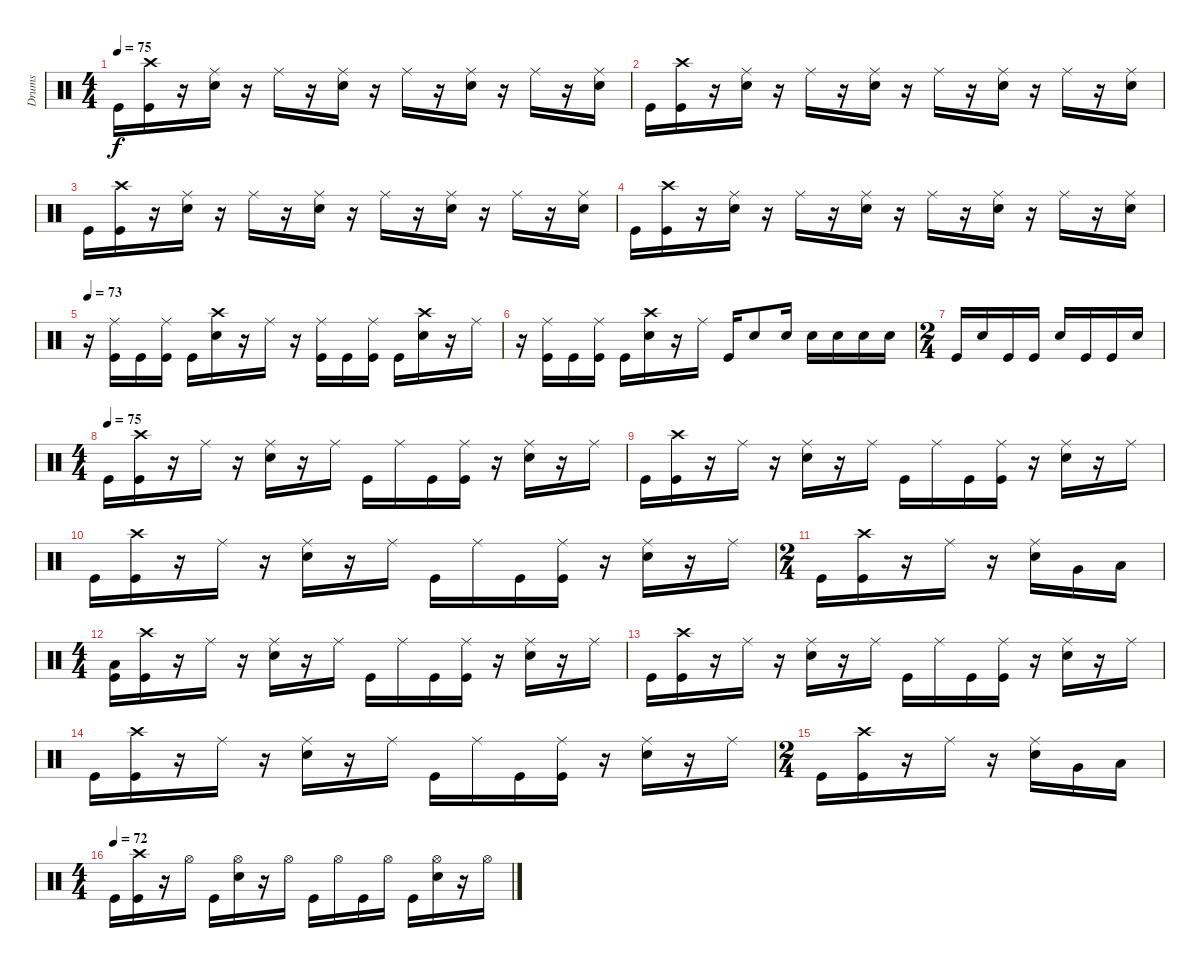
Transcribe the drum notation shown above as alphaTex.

\track ("Drums" "Drums") {instrument percussion}
\staff {score}
\articulation defaults
\ts (4 4)
\tempo 75
\clef neutral
\ks c "Kick (hit)".16{dy f}
("Crash high (hit)" "Kick (hit)").16 r.16 ("Ride (middle)" "Snare (hit) 2").16 r.16 "Ride (middle)".16 r.16 ("Ride (middle)" "Snare (hit) 2").16 r.16 "Ride (middle)".16 r.16 ("Ride (middle)" "Snare (hit) 2").16 r.16 "Ride (middle)".16 r.16 ("Ride (middle)" "Snare (hit) 2").16 |
"Kick (hit)".16 ("Crash high (hit)" "Kick (hit)").16 r.16 ("Ride (middle)" "Snare (hit) 2").16 r.16 "Ride (middle)".16 r.16 ("Ride (middle)" "Snare (hit) 2").16 r.16 "Ride (middle)".16 r.16 ("Ride (middle)" "Snare (hit) 2").16 r.16 "Ride (middle)".16 r.16 ("Ride (middle)" "Snare (hit) 2").16 |
"Kick (hit)".16 ("Crash high (hit)" "Kick (hit)").16 r.16 ("Ride (middle)" "Snare (hit) 2").16 r.16 "Ride (middle)".16 r.16 ("Ride (middle)" "Snare (hit) 2").16 r.16 "Ride (middle)".16 r.16 ("Ride (middle)" "Snare (hit) 2").16 r.16 "Ride (middle)".16 r.16 ("Ride (middle)" "Snare (hit) 2").16 |
"Kick (hit)".16 ("Crash high (hit)" "Kick (hit)").16 r.16 ("Ride (middle)" "Snare (hit) 2").16 r.16 "Ride (middle)".16 r.16 ("Ride (middle)" "Snare (hit) 2").16 r.16 "Ride (middle)".16 r.16 ("Ride (middle)" "Snare (hit) 2").16 r.16 "Ride (middle)".16 r.16 ("Ride (middle)" "Snare (hit) 2").16 |
\tempo 73
r.16 ("Ride (middle)" "Kick (hit)").16 "Kick (hit)".16 ("Ride (middle)" "Kick (hit)").16 "Kick (hit)".16 ("Crash high (hit)" "Snare (hit) 2").16 r.16 "Ride (middle)".16 r.16 ("Ride (middle)" "Kick (hit)").16 "Kick (hit)".16 ("Ride (middle)" "Kick (hit)").16 "Kick (hit)".16 ("Crash high (hit)" "Snare (hit) 2").16 r.16 "Ride (middle)".16 |
r.16 ("Ride (middle)" "Kick (hit)").16 "Kick (hit)".16 ("Ride (middle)" "Kick (hit)").16 "Kick (hit)".16 ("Crash high (hit)" "Snare (hit) 2").16 r.16 "Ride (middle)".16 "Kick (hit)".16 "Snare (hit) 2".8 "Snare (hit) 2".16 "Snare (hit) 2".16 "Snare (hit) 2".16 "Snare (hit) 2".16 "Snare (hit) 2".16 |
\ts (2 4)
"Kick (hit)".16 "Snare (hit) 2".16 "Kick (hit)".16 "Kick (hit)".16 "Snare (hit) 2".16 "Kick (hit)".16 "Kick (hit)".16 "Snare (hit) 2".16 |
\ts (4 4)
\tempo (75)
"Kick (hit)".16 ("Crash high (hit)" "Kick (hit)").16 r.16 "Ride (middle)".16 r.16 ("Ride (middle)" "Snare (hit) 2").16 r.16 "Ride (middle)".16 "Kick (hit)".16 "Ride (middle)".16 "Kick (hit)".16 ("Ride (middle)" "Kick (hit)").16 r.16 ("Ride (middle)" "Snare (hit) 2").16 r.16 "Ride (middle)".16 |
"Kick (hit)".16 ("Crash high (hit)" "Kick (hit)").16 r.16 "Ride (middle)".16 r.16 ("Ride (middle)" "Snare (hit) 2").16 r.16 "Ride (middle)".16 "Kick (hit)".16 "Ride (middle)".16 "Kick (hit)".16 ("Ride (middle)" "Kick (hit)").16 r.16 ("Ride (middle)" "Snare (hit) 2").16 r.16 "Ride (middle)".16 |
"Kick (hit)".16 ("Crash high (hit)" "Kick (hit)").16 r.16 "Ride (middle)".16 r.16 ("Ride (middle)" "Snare (hit) 2").16 r.16 "Ride (middle)".16 "Kick (hit)".16 "Ride (middle)".16 "Kick (hit)".16 ("Ride (middle)" "Kick (hit)").16 r.16 ("Ride (middle)" "Snare (hit) 2").16 r.16 "Ride (middle)".16 |
\ts (2 4)
"Kick (hit)".16 ("Crash high (hit)" "Kick (hit)").16 r.16 "Ride (middle)".16 r.16 ("Ride (middle)" "Snare (hit) 2").16 "Very Low Tom (hit)".16 "Low Tom (hit)".16 |
\ts (4 4)
("Low Tom (hit)" "Kick (hit)").16 ("Crash high (hit)" "Kick (hit)").16 r.16 "Ride (middle)".16 r.16 ("Ride (middle)" "Snare (hit) 2").16 r.16 "Ride (middle)".16 "Kick (hit)".16 "Ride (middle)".16 "Kick (hit)".16 ("Ride (middle)" "Kick (hit)").16 r.16 ("Ride (middle)" "Snare (hit) 2").16 r.16 "Ride (middle)".16 |
"Kick (hit)".16 ("Crash high (hit)" "Kick (hit)").16 r.16 "Ride (middle)".16 r.16 ("Ride (middle)" "Snare (hit) 2").16 r.16 "Ride (middle)".16 "Kick (hit)".16 "Ride (middle)".16 "Kick (hit)".16 ("Ride (middle)" "Kick (hit)").16 r.16 ("Ride (middle)" "Snare (hit) 2").16 r.16 "Ride (middle)".16 |
"Kick (hit)".16 ("Crash high (hit)" "Kick (hit)").16 r.16 "Ride (middle)".16 r.16 ("Ride (middle)" "Snare (hit) 2").16 r.16 "Ride (middle)".16 "Kick (hit)".16 "Ride (middle)".16 "Kick (hit)".16 ("Ride (middle)" "Kick (hit)").16 r.16 ("Ride (middle)" "Snare (hit) 2").16 r.16 "Ride (middle)".16 |
\ts (2 4)
"Kick (hit)".16 ("Crash high (hit)" "Kick (hit)").16 r.16 "Ride (middle)".16 r.16 ("Ride (middle)" "Snare (hit) 2").16 "Very Low Tom (hit)".16 "Low Tom (hit)".16 |
\ts (4 4)
\tempo (72)
"Kick (hit)".16 ("Crash high (hit)" "Kick (hit)").16 r.16 "Hi-Hat (open)".16 "Kick (hit)".16 ("Hi-Hat (open)" "Snare (hit) 2").16 r.16 "Hi-Hat (open)".16 "Kick (hit)".16 "Hi-Hat (open)".16 "Kick (hit)".16 "Hi-Hat (open)".16 "Kick (hit)".16 ("Hi-Hat (open)" "Snare (hit) 2").16 r.16 "Hi-Hat (open)".16
